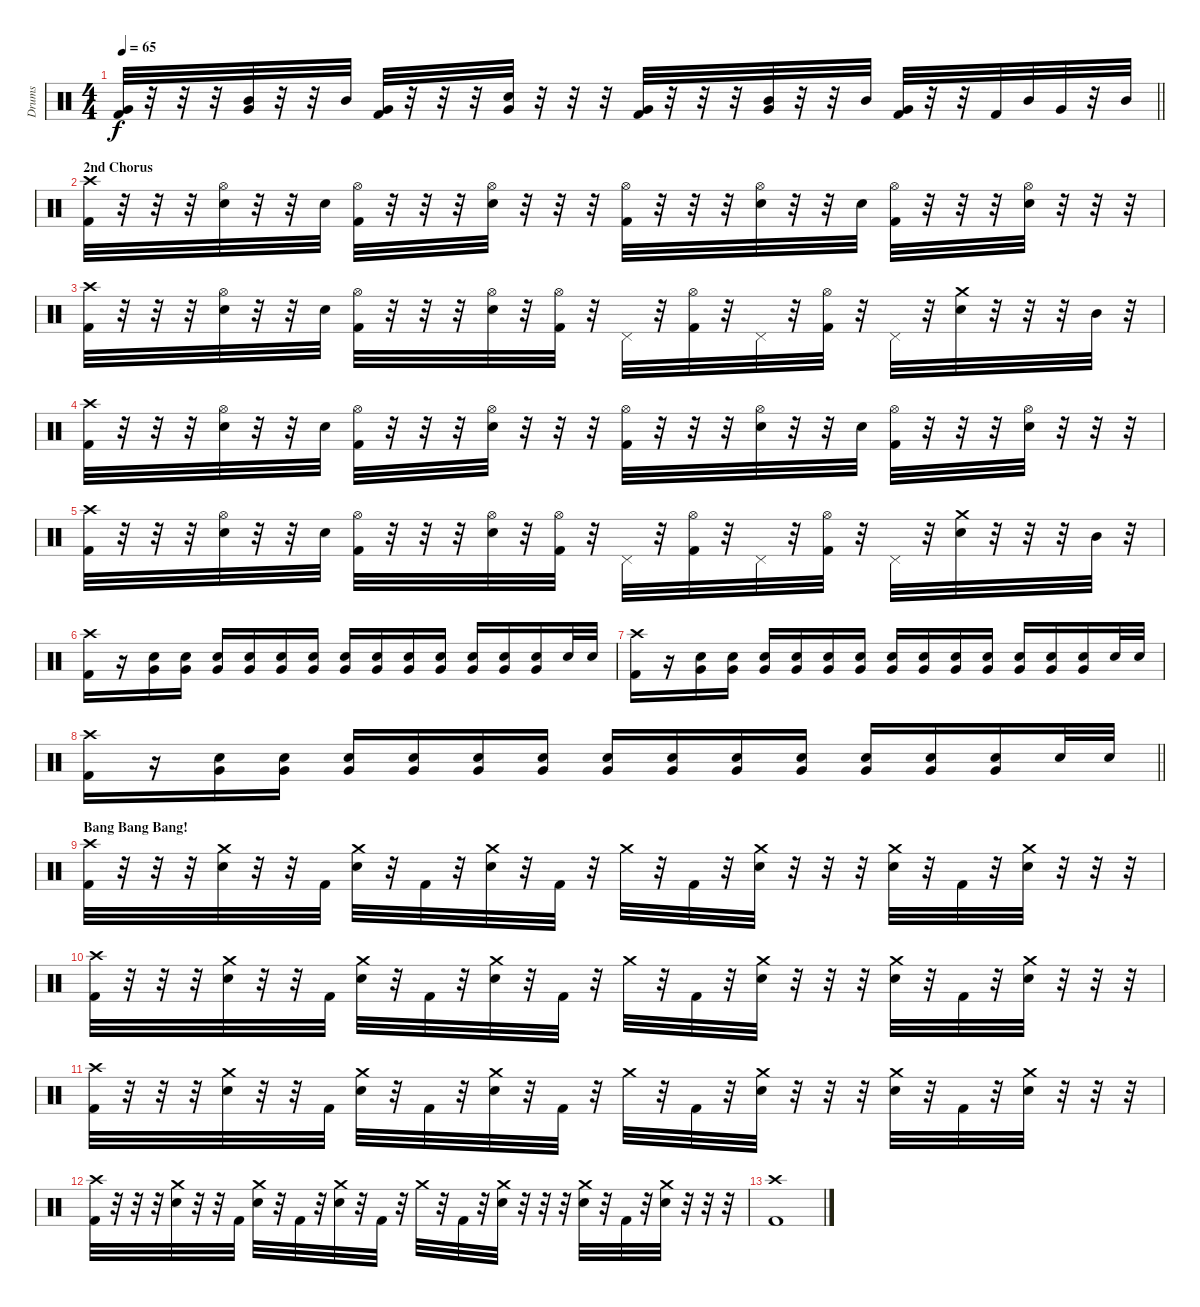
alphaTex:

\track ("Drums" "Drums") {instrument percussion}
\staff {score}
\articulation defaults
\ts (4 4)
\tempo 65
\clef neutral
\barLineRight lightlight
\ks c
("Very Low Tom (hit)" "Kick (hit) 2").32{dy f} r.32 r.32 r.32 ("Mid Tom (hit)" "Very Low Tom (hit)").32 r.32 r.32 "Mid Tom (hit)".32 ("Very Low Tom (hit)" "Kick (hit) 2").32 r.32 r.32 r.32 ("Snare (hit) 2" "Very Low Tom (hit)").32 r.32 r.32 r.32 ("Very Low Tom (hit)" "Kick (hit) 2").32 r.32 r.32 r.32 ("Mid Tom (hit)" "Very Low Tom (hit)").32 r.32 r.32 "Mid Tom (hit)".32 ("Very Low Tom (hit)" "Kick (hit) 2").32 r.32 r.32 "Kick (hit) 2".32 "Mid Tom (hit)".32 "Very Low Tom (hit)".32 r.32 "Mid Tom (hit)".32 |
\section ("" "2nd Chorus")
("Crash high (hit)" "Kick (hit) 2").32 r.32 r.32 r.32 ("Hi-Hat (open)" "Snare (hit) 2").32 r.32 r.32 "Snare (hit) 2".32 ("Hi-Hat (open)" "Kick (hit) 2").32 r.32 r.32 r.32 ("Hi-Hat (open)" "Snare (hit) 2").32 r.32 r.32 r.32 ("Hi-Hat (open)" "Kick (hit) 2").32 r.32 r.32 r.32 ("Hi-Hat (open)" "Snare (hit) 2").32 r.32 r.32 "Snare (hit) 2".32 ("Hi-Hat (open)" "Kick (hit) 2").32 r.32 r.32 r.32 ("Hi-Hat (open)" "Snare (hit) 2").32 r.32 r.32 r.32 |
("Crash high (hit)" "Kick (hit) 2").32 r.32 r.32 r.32 ("Hi-Hat (open)" "Snare (hit) 2").32 r.32 r.32 "Snare (hit) 2".32 ("Hi-Hat (open)" "Kick (hit) 2").32 r.32 r.32 r.32 ("Hi-Hat (open)" "Snare (hit) 2").32 r.32 ("Hi-Hat (open)" "Kick (hit) 2").32 r.32 "Pedal Hi-Hat (hit)".32 r.32 ("Hi-Hat (open)" "Kick (hit) 2").32 r.32 "Pedal Hi-Hat (hit)".32 r.32 ("Hi-Hat (open)" "Kick (hit) 2").32 r.32 "Pedal Hi-Hat (hit)".32 r.32 ("Crash medium (hit)" "Snare (hit) 2").32 r.32 r.32 r.32 "Mid Tom (hit)".32 r.32 |
("Crash high (hit)" "Kick (hit) 2").32 r.32 r.32 r.32 ("Hi-Hat (open)" "Snare (hit) 2").32 r.32 r.32 "Snare (hit) 2".32 ("Hi-Hat (open)" "Kick (hit) 2").32 r.32 r.32 r.32 ("Hi-Hat (open)" "Snare (hit) 2").32 r.32 r.32 r.32 ("Hi-Hat (open)" "Kick (hit) 2").32 r.32 r.32 r.32 ("Hi-Hat (open)" "Snare (hit) 2").32 r.32 r.32 "Snare (hit) 2".32 ("Hi-Hat (open)" "Kick (hit) 2").32 r.32 r.32 r.32 ("Hi-Hat (open)" "Snare (hit) 2").32 r.32 r.32 r.32 |
("Crash high (hit)" "Kick (hit) 2").32 r.32 r.32 r.32 ("Hi-Hat (open)" "Snare (hit) 2").32 r.32 r.32 "Snare (hit) 2".32 ("Hi-Hat (open)" "Kick (hit) 2").32 r.32 r.32 r.32 ("Hi-Hat (open)" "Snare (hit) 2").32 r.32 ("Hi-Hat (open)" "Kick (hit) 2").32 r.32 "Pedal Hi-Hat (hit)".32 r.32 ("Hi-Hat (open)" "Kick (hit) 2").32 r.32 "Pedal Hi-Hat (hit)".32 r.32 ("Hi-Hat (open)" "Kick (hit) 2").32 r.32 "Pedal Hi-Hat (hit)".32 r.32 ("Crash medium (hit)" "Snare (hit) 2").32 r.32 r.32 r.32 "Mid Tom (hit)".32 r.32 |
("Crash high (hit)" "Kick (hit) 2").16 r.16 ("Snare (hit) 2" "Very Low Tom (hit)").16 ("Snare (hit) 2" "Very Low Tom (hit)").16 ("Snare (hit) 2" "Very Low Tom (hit)").16 ("Snare (hit) 2" "Very Low Tom (hit)").16 ("Snare (hit) 2" "Very Low Tom (hit)").16 ("Snare (hit) 2" "Very Low Tom (hit)").16 ("Snare (hit) 2" "Very Low Tom (hit)").16 ("Snare (hit) 2" "Very Low Tom (hit)").16 ("Snare (hit) 2" "Very Low Tom (hit)").16 ("Snare (hit) 2" "Very Low Tom (hit)").16 ("Snare (hit) 2" "Very Low Tom (hit)").16 ("Snare (hit) 2" "Very Low Tom (hit)").16 ("Snare (hit) 2" "Very Low Tom (hit)").16 "Snare (hit) 2".32 "Snare (hit) 2".32 |
("Crash high (hit)" "Kick (hit) 2").16 r.16 ("Snare (hit) 2" "Very Low Tom (hit)").16 ("Snare (hit) 2" "Very Low Tom (hit)").16 ("Snare (hit) 2" "Very Low Tom (hit)").16 ("Snare (hit) 2" "Very Low Tom (hit)").16 ("Snare (hit) 2" "Very Low Tom (hit)").16 ("Snare (hit) 2" "Very Low Tom (hit)").16 ("Snare (hit) 2" "Very Low Tom (hit)").16 ("Snare (hit) 2" "Very Low Tom (hit)").16 ("Snare (hit) 2" "Very Low Tom (hit)").16 ("Snare (hit) 2" "Very Low Tom (hit)").16 ("Snare (hit) 2" "Very Low Tom (hit)").16 ("Snare (hit) 2" "Very Low Tom (hit)").16 ("Snare (hit) 2" "Very Low Tom (hit)").16 "Snare (hit) 2".32 "Snare (hit) 2".32 |
\barLineRight lightlight
("Crash high (hit)" "Kick (hit) 2").16 r.16 ("Snare (hit) 2" "Very Low Tom (hit)").16 ("Snare (hit) 2" "Very Low Tom (hit)").16 ("Snare (hit) 2" "Very Low Tom (hit)").16 ("Snare (hit) 2" "Very Low Tom (hit)").16 ("Snare (hit) 2" "Very Low Tom (hit)").16 ("Snare (hit) 2" "Very Low Tom (hit)").16 ("Snare (hit) 2" "Very Low Tom (hit)").16 ("Snare (hit) 2" "Very Low Tom (hit)").16 ("Snare (hit) 2" "Very Low Tom (hit)").16 ("Snare (hit) 2" "Very Low Tom (hit)").16 ("Snare (hit) 2" "Very Low Tom (hit)").16 ("Snare (hit) 2" "Very Low Tom (hit)").16 ("Snare (hit) 2" "Very Low Tom (hit)").16 "Snare (hit) 2".32 "Snare (hit) 2".32 |
\section ("" "Bang Bang Bang!")
("Crash high (hit)" "Kick (hit) 2").32 r.32 r.32 r.32 ("Crash medium (hit)" "Snare (hit) 2").32 r.32 r.32 "Kick (hit) 2".32 ("Crash medium (hit)" "Snare (hit) 2").32 r.32 "Kick (hit) 2".32 r.32 ("Crash medium (hit)" "Snare (hit) 2").32 r.32 "Kick (hit) 2".32 r.32 "Crash medium (hit)".32 r.32 "Kick (hit) 2".32 r.32 ("Crash medium (hit)" "Snare (hit) 2").32 r.32 r.32 r.32 ("Crash medium (hit)" "Snare (hit) 2").32 r.32 "Kick (hit) 2".32 r.32 ("Crash medium (hit)" "Snare (hit) 2").32 r.32 r.32 r.32 |
("Crash high (hit)" "Kick (hit) 2").32 r.32 r.32 r.32 ("Crash medium (hit)" "Snare (hit) 2").32 r.32 r.32 "Kick (hit) 2".32 ("Crash medium (hit)" "Snare (hit) 2").32 r.32 "Kick (hit) 2".32 r.32 ("Crash medium (hit)" "Snare (hit) 2").32 r.32 "Kick (hit) 2".32 r.32 "Crash medium (hit)".32 r.32 "Kick (hit) 2".32 r.32 ("Crash medium (hit)" "Snare (hit) 2").32 r.32 r.32 r.32 ("Crash medium (hit)" "Snare (hit) 2").32 r.32 "Kick (hit) 2".32 r.32 ("Crash medium (hit)" "Snare (hit) 2").32 r.32 r.32 r.32 |
("Crash high (hit)" "Kick (hit) 2").32 r.32 r.32 r.32 ("Crash medium (hit)" "Snare (hit) 2").32 r.32 r.32 "Kick (hit) 2".32 ("Crash medium (hit)" "Snare (hit) 2").32 r.32 "Kick (hit) 2".32 r.32 ("Crash medium (hit)" "Snare (hit) 2").32 r.32 "Kick (hit) 2".32 r.32 "Crash medium (hit)".32 r.32 "Kick (hit) 2".32 r.32 ("Crash medium (hit)" "Snare (hit) 2").32 r.32 r.32 r.32 ("Crash medium (hit)" "Snare (hit) 2").32 r.32 "Kick (hit) 2".32 r.32 ("Crash medium (hit)" "Snare (hit) 2").32 r.32 r.32 r.32 |
("Crash high (hit)" "Kick (hit) 2").32 r.32 r.32 r.32 ("Crash medium (hit)" "Snare (hit) 2").32 r.32 r.32 "Kick (hit) 2".32 ("Crash medium (hit)" "Snare (hit) 2").32 r.32 "Kick (hit) 2".32 r.32 ("Crash medium (hit)" "Snare (hit) 2").32 r.32 "Kick (hit) 2".32 r.32 "Crash medium (hit)".32 r.32 "Kick (hit) 2".32 r.32 ("Crash medium (hit)" "Snare (hit) 2").32 r.32 r.32 r.32 ("Crash medium (hit)" "Snare (hit) 2").32 r.32 "Kick (hit) 2".32 r.32 ("Crash medium (hit)" "Snare (hit) 2").32 r.32 r.32 r.32 |
("Crash high (hit)" "Kick (hit) 2").1
